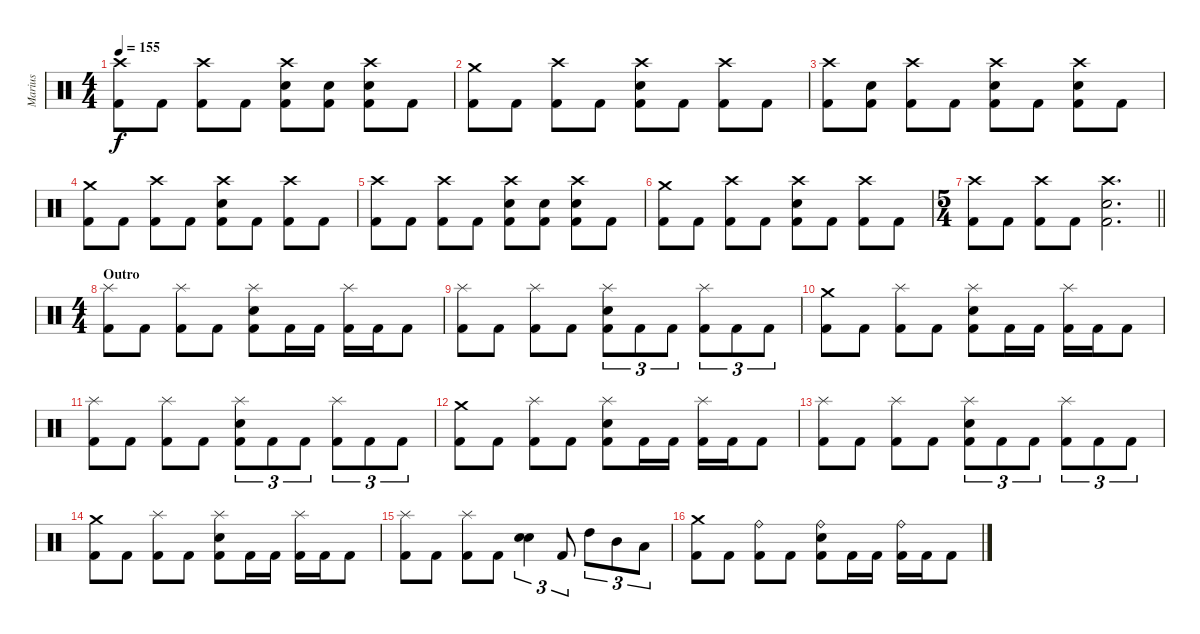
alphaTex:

\track ("Marius" "Marius") {instrument percussion}
\staff {score}
\articulation defaults
\ts (4 4)
\tempo 155
\clef neutral
\ks c
("Crash high (hit)" "Kick (hit) 2").8{dy f} "Kick (hit) 2".8 ("Crash high (hit)" "Kick (hit) 2").8 "Kick (hit) 2".8 ("Crash high (hit)" "Snare (hit) 2" "Kick (hit) 2").8 ("Snare (hit) 2" "Kick (hit) 2").8 ("Crash high (hit)" "Snare (hit) 2" "Kick (hit) 2").8 "Kick (hit) 2".8 |
("Crash medium (hit)" "Kick (hit) 2").8 "Kick (hit) 2".8 ("Crash high (hit)" "Kick (hit) 2").8 "Kick (hit) 2".8 ("Crash high (hit)" "Snare (hit) 2" "Kick (hit) 2").8 "Kick (hit) 2".8 ("Crash high (hit)" "Kick (hit) 2").8 "Kick (hit) 2".8 |
("Crash high (hit)" "Kick (hit) 2").8 ("Snare (hit) 2" "Kick (hit) 2").8 ("Crash high (hit)" "Kick (hit) 2").8 "Kick (hit) 2".8 ("Crash high (hit)" "Snare (hit) 2" "Kick (hit) 2").8 "Kick (hit) 2".8 ("Crash high (hit)" "Snare (hit) 2" "Kick (hit) 2").8 "Kick (hit) 2".8 |
("Crash medium (hit)" "Kick (hit) 2").8 "Kick (hit) 2".8 ("Crash high (hit)" "Kick (hit) 2").8 "Kick (hit) 2".8 ("Crash high (hit)" "Snare (hit) 2" "Kick (hit) 2").8 "Kick (hit) 2".8 ("Crash high (hit)" "Kick (hit) 2").8 "Kick (hit) 2".8 |
("Crash high (hit)" "Kick (hit) 2").8 "Kick (hit) 2".8 ("Crash high (hit)" "Kick (hit) 2").8 "Kick (hit) 2".8 ("Crash high (hit)" "Snare (hit) 2" "Kick (hit) 2").8 ("Snare (hit) 2" "Kick (hit) 2").8 ("Crash high (hit)" "Snare (hit) 2" "Kick (hit) 2").8 "Kick (hit) 2".8 |
("Crash medium (hit)" "Kick (hit) 2").8 "Kick (hit) 2".8 ("Crash high (hit)" "Kick (hit) 2").8 "Kick (hit) 2".8 ("Crash high (hit)" "Snare (hit) 2" "Kick (hit) 2").8 "Kick (hit) 2".8 ("Crash high (hit)" "Kick (hit) 2").8 "Kick (hit) 2".8 |
\ts (5 4)
\barLineRight lightlight
("Crash high (hit)" "Kick (hit) 2").8 "Kick (hit) 2".8 ("Crash high (hit)" "Kick (hit) 2").8 "Kick (hit) 2".8 ("Crash high (hit)" "Snare (hit) 2" "Kick (hit) 2").2{d} |
\ts (4 4)
\section ("" "Outro")
("Splash (hit)" "Kick (hit) 2").8 "Kick (hit) 2".8 ("Splash (hit)" "Kick (hit) 2").8 "Kick (hit) 2".8 ("Splash (hit)" "Snare (hit) 2" "Kick (hit) 2").8 "Kick (hit) 2".16 "Kick (hit) 2".16 ("Splash (hit)" "Kick (hit) 2").16 "Kick (hit) 2".16 "Kick (hit) 2".8 |
("Splash (hit)" "Kick (hit) 2").8 "Kick (hit) 2".8 ("Splash (hit)" "Kick (hit) 2").8 "Kick (hit) 2".8 ("Splash (hit)" "Snare (hit) 2" "Kick (hit) 2").8{tu (3 2)} "Kick (hit) 2".8{tu (3 2)} "Kick (hit) 2".8{tu (3 2)} ("Splash (hit)" "Kick (hit) 2").8{tu (3 2)} "Kick (hit) 2".8{tu (3 2)} "Kick (hit) 2".8{tu (3 2)} |
("Crash medium (hit)" "Kick (hit) 2").8 "Kick (hit) 2".8 ("Splash (hit)" "Kick (hit) 2").8 "Kick (hit) 2".8 ("Splash (hit)" "Snare (hit) 2" "Kick (hit) 2").8 "Kick (hit) 2".16 "Kick (hit) 2".16 ("Splash (hit)" "Kick (hit) 2").16 "Kick (hit) 2".16 "Kick (hit) 2".8 |
("Splash (hit)" "Kick (hit) 2").8 "Kick (hit) 2".8 ("Splash (hit)" "Kick (hit) 2").8 "Kick (hit) 2".8 ("Splash (hit)" "Snare (hit) 2" "Kick (hit) 2").8{tu (3 2)} "Kick (hit) 2".8{tu (3 2)} "Kick (hit) 2".8{tu (3 2)} ("Splash (hit)" "Kick (hit) 2").8{tu (3 2)} "Kick (hit) 2".8{tu (3 2)} "Kick (hit) 2".8{tu (3 2)} |
("Crash medium (hit)" "Kick (hit) 2").8 "Kick (hit) 2".8 ("Splash (hit)" "Kick (hit) 2").8 "Kick (hit) 2".8 ("Splash (hit)" "Snare (hit) 2" "Kick (hit) 2").8 "Kick (hit) 2".16 "Kick (hit) 2".16 ("Splash (hit)" "Kick (hit) 2").16 "Kick (hit) 2".16 "Kick (hit) 2".8 |
("Splash (hit)" "Kick (hit) 2").8 "Kick (hit) 2".8 ("Splash (hit)" "Kick (hit) 2").8 "Kick (hit) 2".8 ("Splash (hit)" "Snare (hit) 2" "Kick (hit) 2").8{tu (3 2)} "Kick (hit) 2".8{tu (3 2)} "Kick (hit) 2".8{tu (3 2)} ("Splash (hit)" "Kick (hit) 2").8{tu (3 2)} "Kick (hit) 2".8{tu (3 2)} "Kick (hit) 2".8{tu (3 2)} |
("Crash medium (hit)" "Kick (hit) 2").8 "Kick (hit) 2".8 ("Splash (hit)" "Kick (hit) 2").8 "Kick (hit) 2".8 ("Splash (hit)" "Snare (hit) 2" "Kick (hit) 2").8 "Kick (hit) 2".16 "Kick (hit) 2".16 ("Splash (hit)" "Kick (hit) 2").16 "Kick (hit) 2".16 "Kick (hit) 2".8 |
("Splash (hit)" "Kick (hit) 2").8 "Kick (hit) 2".8 ("Splash (hit)" "Kick (hit) 2").8 "Kick (hit) 2".8 ("Snare (hit) 2" "Snare (hit) 2").4{tu (3 2) bd 60} "Kick (hit) 2".8{tu (3 2)} "High Tom (hit)".8{tu (3 2)} "Mid Tom (hit)".8{tu (3 2)} "Low Tom (hit)".8{tu (3 2)} |
("Crash medium (hit)" "Kick (hit) 2").8 "Kick (hit) 2".8 ("Ride (bell)" "Kick (hit) 2").8 "Kick (hit) 2".8 ("Ride (bell)" "Snare (hit) 2" "Kick (hit) 2").8 "Kick (hit) 2".16 "Kick (hit) 2".16 ("Ride (bell)" "Kick (hit) 2").16 "Kick (hit) 2".16 "Kick (hit) 2".8
